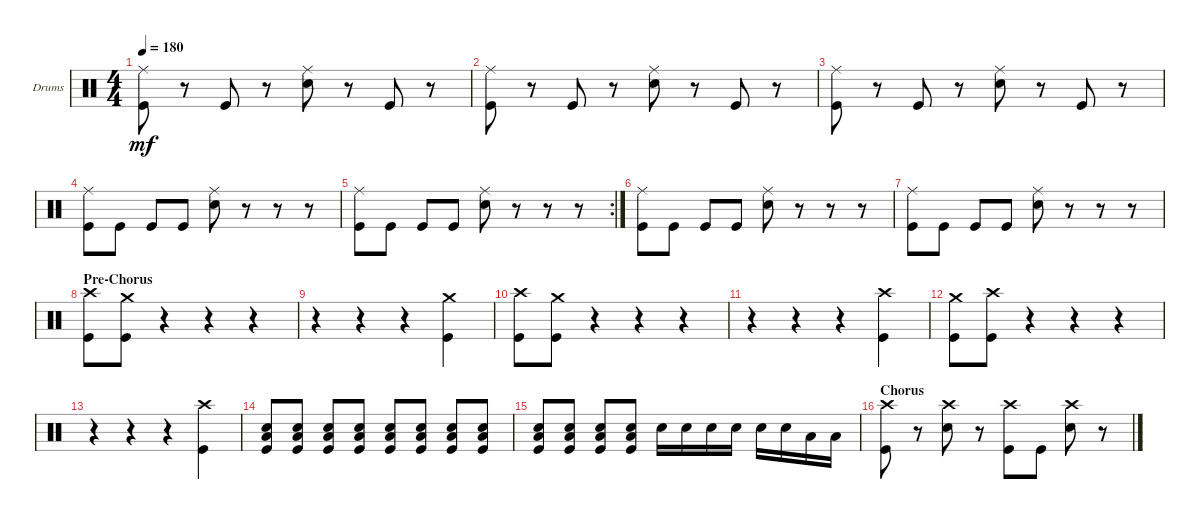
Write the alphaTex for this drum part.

\bracketExtendMode groupsimilarinstruments
\firstSystemTrackNameOrientation horizontal
\otherSystemsTrackNameOrientation horizontal
\track ("Drumkit" "Drums") {instrument percussion}
\staff {score}
\articulation defaults
\ts (4 4)
\tempo 180
\clef neutral
\ks c
("Kick (hit)" "Ride (middle)").8{dy mf} r.8 "Kick (hit)".8 r.8 ("Snare (hit) 2" "Ride (middle)").8 r.8 "Kick (hit)".8 r.8 |
("Kick (hit)" "Ride (middle)").8 r.8 "Kick (hit)".8 r.8 ("Snare (hit) 2" "Ride (middle)").8 r.8 "Kick (hit)".8 r.8 |
("Kick (hit)" "Ride (middle)").8 r.8 "Kick (hit)".8 r.8 ("Snare (hit) 2" "Ride (middle)").8 r.8 "Kick (hit)".8 r.8 |
("Kick (hit)" "Ride (middle)").8 "Kick (hit)".8 "Kick (hit)".8 "Kick (hit)".8 ("Snare (hit) 2" "Ride (middle)").8 r.8 r.8 r.8 |
\rc 2
("Kick (hit)" "Ride (middle)").8 "Kick (hit)".8 "Kick (hit)".8 "Kick (hit)".8 ("Snare (hit) 2" "Ride (middle)").8 r.8 r.8 r.8 |
("Kick (hit)" "Ride (middle)").8 "Kick (hit)".8 "Kick (hit)".8 "Kick (hit)".8 ("Snare (hit) 2" "Ride (middle)").8 r.8 r.8 r.8 |
("Kick (hit)" "Ride (middle)").8 "Kick (hit)".8 "Kick (hit)".8 "Kick (hit)".8 ("Snare (hit) 2" "Ride (middle)").8 r.8 r.8 r.8 |
\section ("" "Pre-Chorus")
("Kick (hit)" "Crash high (hit)").8 ("Kick (hit)" "Crash medium (hit)").8 r.4 r.4 r.4 |
r.4 r.4 r.4 ("Kick (hit)" "Crash medium (hit)").4 |
("Kick (hit)" "Crash high (hit)").8 ("Kick (hit)" "Crash medium (hit)").8 r.4 r.4 r.4 |
r.4 r.4 r.4 ("Kick (hit)" "Crash high (hit)").4 |
("Kick (hit)" "Crash medium (hit)").8 ("Kick (hit)" "Crash high (hit)").8 r.4 r.4 r.4 |
r.4 r.4 r.4 ("Kick (hit)" "Crash high (hit)").4 |
("Kick (hit)" "Snare (hit) 2" "Low Tom (hit)").8 ("Kick (hit)" "Snare (hit) 2" "Low Tom (hit)").8 ("Kick (hit)" "Snare (hit) 2" "Low Tom (hit)").8 ("Kick (hit)" "Snare (hit) 2" "Low Tom (hit)").8 ("Kick (hit)" "Snare (hit) 2" "Low Tom (hit)").8 ("Kick (hit)" "Snare (hit) 2" "Low Tom (hit)").8 ("Kick (hit)" "Snare (hit) 2" "Low Tom (hit)").8 ("Kick (hit)" "Snare (hit) 2" "Low Tom (hit)").8 |
("Kick (hit)" "Snare (hit) 2" "Low Tom (hit)").8 ("Kick (hit)" "Snare (hit) 2" "Low Tom (hit)").8 ("Kick (hit)" "Snare (hit) 2" "Low Tom (hit)").8 ("Kick (hit)" "Snare (hit) 2" "Low Tom (hit)").8 "Snare (hit) 2".16 "Snare (hit) 2".16 "Snare (hit) 2".16 "Snare (hit) 2".16 "Snare (hit) 2".16 "Snare (hit) 2".16 "Low Tom (hit)".16 "Low Tom (hit)".16 |
\section ("" "Chorus")
("Kick (hit)" "Crash high (hit)").8 r.8 ("Snare (hit) 2" "Crash high (hit)").8 r.8 ("Kick (hit)" "Crash high (hit)").8 "Kick (hit)".8 ("Snare (hit) 2" "Crash high (hit)").8 r.8
